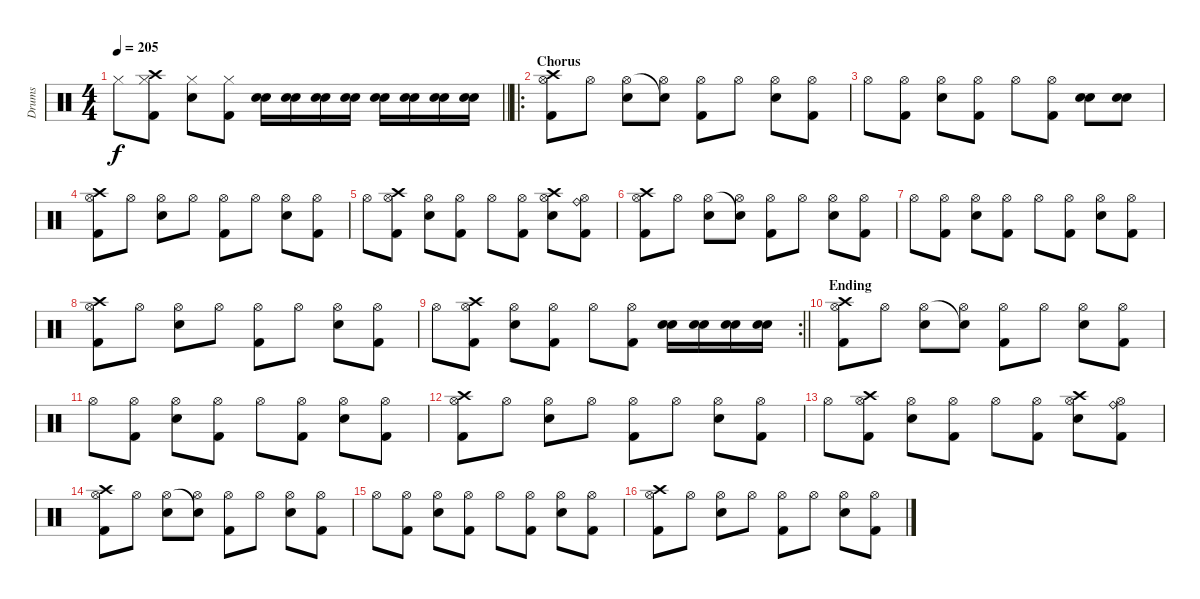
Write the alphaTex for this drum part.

\track ("Drums" "Drums") {instrument percussion}
\staff {score}
\articulation defaults
\ts (4 4)
\tempo 205
\clef neutral
\barLineRight lightlight
\ks c "Hi-Hat (closed)".8{dy f}
("Crash high (hit)" "Hi-Hat (closed)" "Kick (hit) 2").8 ("Hi-Hat (closed)" "Electric Snare (hit)").8 ("Hi-Hat (closed)" "Kick (hit) 2").8 ("Electric Snare (hit)" "Electric Snare (hit)").16 ("Electric Snare (hit)" "Electric Snare (hit)").16 ("Electric Snare (hit)" "Electric Snare (hit)").16 ("Electric Snare (hit)" "Electric Snare (hit)").16 ("Electric Snare (hit)" "Electric Snare (hit)").16 ("Electric Snare (hit)" "Electric Snare (hit)").16 ("Electric Snare (hit)" "Electric Snare (hit)").16 ("Electric Snare (hit)" "Electric Snare (hit)").16 |
\ro
\section ("" "Chorus")
("Crash high (hit)" "Hi-Hat (open)" "Kick (hit) 2").8 "Hi-Hat (open)".8 ("Hi-Hat (open)" "Electric Snare (hit)").8 ("Snare (hit)"{t} "Hi-Hat (open)").8 ("Hi-Hat (open)" "Kick (hit) 2").8 "Hi-Hat (open)".8 ("Hi-Hat (open)" "Electric Snare (hit)").8 ("Hi-Hat (open)" "Kick (hit) 2").8 |
"Hi-Hat (open)".8 ("Hi-Hat (open)" "Kick (hit) 2").8 ("Hi-Hat (open)" "Electric Snare (hit)").8 ("Hi-Hat (open)" "Kick (hit) 2").8 "Hi-Hat (open)".8 ("Hi-Hat (open)" "Kick (hit) 2").8 ("Electric Snare (hit)" "Electric Snare (hit)").8 ("Electric Snare (hit)" "Electric Snare (hit)").8 |
("Crash high (hit)" "Hi-Hat (open)" "Kick (hit) 2").8 "Hi-Hat (open)".8 ("Hi-Hat (open)" "Electric Snare (hit)").8 "Hi-Hat (open)".8 ("Hi-Hat (open)" "Kick (hit) 2").8 "Hi-Hat (open)".8 ("Hi-Hat (open)" "Electric Snare (hit)").8 ("Hi-Hat (open)" "Kick (hit) 2").8 |
"Hi-Hat (open)".8 ("Crash high (hit)" "Hi-Hat (open)" "Kick (hit) 2").8 ("Hi-Hat (open)" "Electric Snare (hit)").8 ("Hi-Hat (open)" "Kick (hit) 2").8 "Hi-Hat (open)".8 ("Hi-Hat (open)" "Kick (hit) 2").8 ("Crash high (hit)" "Hi-Hat (open)" "Electric Snare (hit)").8 ("Ride (bell)" "Hi-Hat (open)" "Kick (hit) 2").8 |
("Crash high (hit)" "Hi-Hat (open)" "Kick (hit) 2").8 "Hi-Hat (open)".8 ("Hi-Hat (open)" "Electric Snare (hit)").8 ("Snare (hit)"{t} "Hi-Hat (open)").8 ("Hi-Hat (open)" "Kick (hit) 2").8 "Hi-Hat (open)".8 ("Hi-Hat (open)" "Electric Snare (hit)").8 ("Hi-Hat (open)" "Kick (hit) 2").8 |
"Hi-Hat (open)".8 ("Hi-Hat (open)" "Kick (hit) 2").8 ("Hi-Hat (open)" "Electric Snare (hit)").8 ("Hi-Hat (open)" "Kick (hit) 2").8 "Hi-Hat (open)".8 ("Hi-Hat (open)" "Kick (hit) 2").8 ("Hi-Hat (open)" "Electric Snare (hit)").8 ("Hi-Hat (open)" "Kick (hit) 2").8 |
("Crash high (hit)" "Hi-Hat (open)" "Kick (hit) 2").8 "Hi-Hat (open)".8 ("Hi-Hat (open)" "Electric Snare (hit)").8 "Hi-Hat (open)".8 ("Hi-Hat (open)" "Kick (hit) 2").8 "Hi-Hat (open)".8 ("Hi-Hat (open)" "Electric Snare (hit)").8 ("Hi-Hat (open)" "Kick (hit) 2").8 |
\rc 2
\barLineRight lightlight "Hi-Hat (open)".8
("Crash high (hit)" "Hi-Hat (open)" "Kick (hit) 2").8 ("Hi-Hat (open)" "Electric Snare (hit)").8 ("Hi-Hat (open)" "Kick (hit) 2").8 "Hi-Hat (open)".8 ("Hi-Hat (open)" "Kick (hit) 2").8 ("Electric Snare (hit)" "Electric Snare (hit)").16 ("Electric Snare (hit)" "Electric Snare (hit)").16 ("Electric Snare (hit)" "Electric Snare (hit)").16 ("Electric Snare (hit)" "Electric Snare (hit)").16 |
\section ("" "Ending")
("Crash high (hit)" "Hi-Hat (open)" "Kick (hit) 2").8 "Hi-Hat (open)".8 ("Hi-Hat (open)" "Electric Snare (hit)").8 ("Snare (hit)"{t} "Hi-Hat (open)").8 ("Hi-Hat (open)" "Kick (hit) 2").8 "Hi-Hat (open)".8 ("Hi-Hat (open)" "Electric Snare (hit)").8 ("Hi-Hat (open)" "Kick (hit) 2").8 |
"Hi-Hat (open)".8 ("Hi-Hat (open)" "Kick (hit) 2").8 ("Hi-Hat (open)" "Electric Snare (hit)").8 ("Hi-Hat (open)" "Kick (hit) 2").8 "Hi-Hat (open)".8 ("Hi-Hat (open)" "Kick (hit) 2").8 ("Hi-Hat (open)" "Electric Snare (hit)").8 ("Hi-Hat (open)" "Kick (hit) 2").8 |
("Crash high (hit)" "Hi-Hat (open)" "Kick (hit) 2").8 "Hi-Hat (open)".8 ("Hi-Hat (open)" "Electric Snare (hit)").8 "Hi-Hat (open)".8 ("Hi-Hat (open)" "Kick (hit) 2").8 "Hi-Hat (open)".8 ("Hi-Hat (open)" "Electric Snare (hit)").8 ("Hi-Hat (open)" "Kick (hit) 2").8 |
"Hi-Hat (open)".8 ("Crash high (hit)" "Hi-Hat (open)" "Kick (hit) 2").8 ("Hi-Hat (open)" "Electric Snare (hit)").8 ("Hi-Hat (open)" "Kick (hit) 2").8 "Hi-Hat (open)".8 ("Hi-Hat (open)" "Kick (hit) 2").8 ("Crash high (hit)" "Hi-Hat (open)" "Electric Snare (hit)").8 ("Ride (bell)" "Hi-Hat (open)" "Kick (hit) 2").8 |
("Crash high (hit)" "Hi-Hat (open)" "Kick (hit) 2").8 "Hi-Hat (open)".8 ("Hi-Hat (open)" "Electric Snare (hit)").8 ("Snare (hit)"{t} "Hi-Hat (open)").8 ("Hi-Hat (open)" "Kick (hit) 2").8 "Hi-Hat (open)".8 ("Hi-Hat (open)" "Electric Snare (hit)").8 ("Hi-Hat (open)" "Kick (hit) 2").8 |
"Hi-Hat (open)".8 ("Hi-Hat (open)" "Kick (hit) 2").8 ("Hi-Hat (open)" "Electric Snare (hit)").8 ("Hi-Hat (open)" "Kick (hit) 2").8 "Hi-Hat (open)".8 ("Hi-Hat (open)" "Kick (hit) 2").8 ("Hi-Hat (open)" "Electric Snare (hit)").8 ("Hi-Hat (open)" "Kick (hit) 2").8 |
("Crash high (hit)" "Hi-Hat (open)" "Kick (hit) 2").8 "Hi-Hat (open)".8 ("Hi-Hat (open)" "Electric Snare (hit)").8 "Hi-Hat (open)".8 ("Hi-Hat (open)" "Kick (hit) 2").8 "Hi-Hat (open)".8 ("Hi-Hat (open)" "Electric Snare (hit)").8 ("Hi-Hat (open)" "Kick (hit) 2").8
